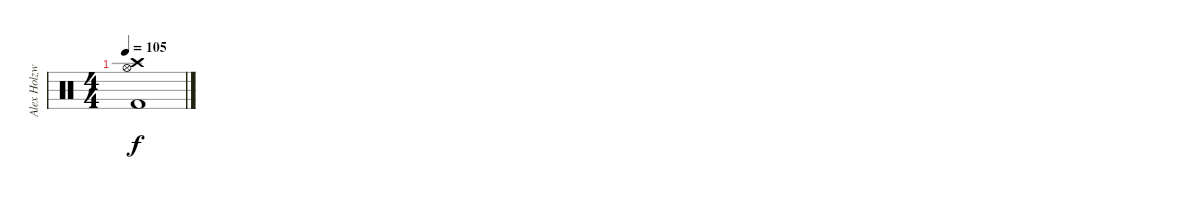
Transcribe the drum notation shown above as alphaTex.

\track ("Alex Holzwarth" "Alex Holzw") {instrument percussion}
\staff {score}
\articulation defaults
\ts (4 4)
\tempo 105
\clef neutral
\ks c
("Crash high (hit)" "Hi-Hat (open)" "Kick (hit) 2").1{dy f}
